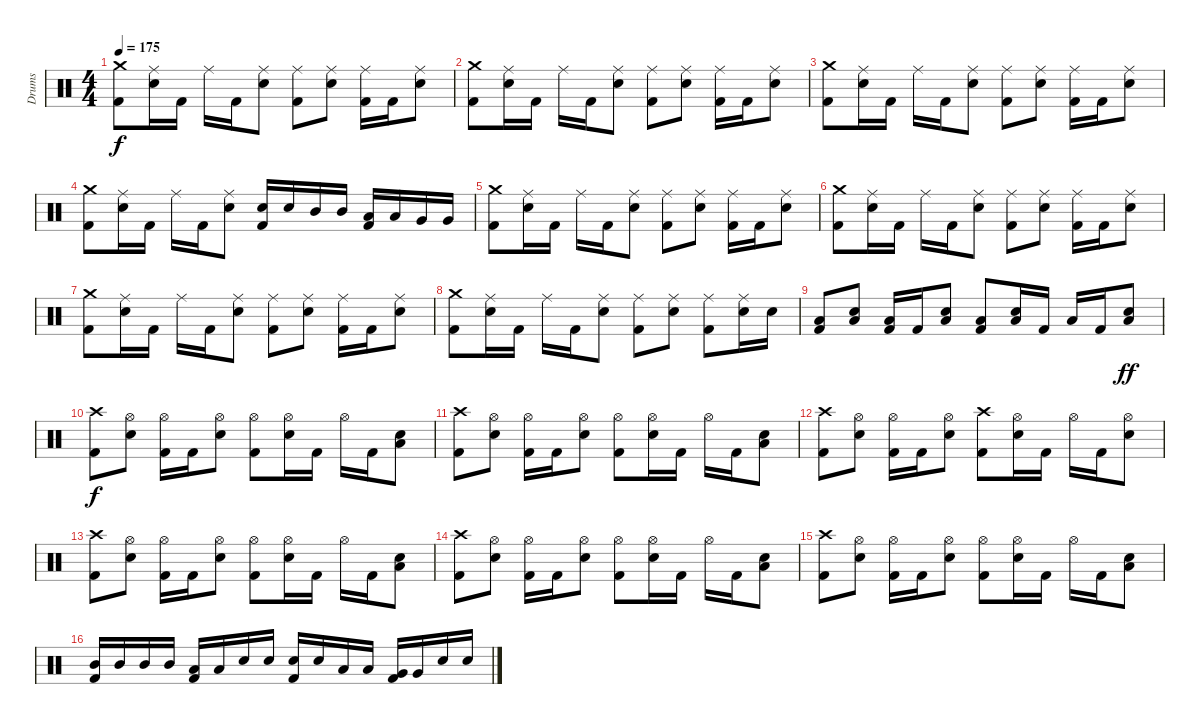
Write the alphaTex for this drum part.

\track ("Drums" "Drums") {instrument percussion}
\staff {score}
\articulation defaults
\ts (4 4)
\tempo 175
\clef neutral
\ks c
("Crash medium (hit)" "Kick (hit) 2").8{dy f} ("Ride (middle)" "Electric Snare (hit)").16 "Kick (hit) 2".16 "Ride (middle)".16 "Kick (hit) 2".16 ("Ride (middle)" "Electric Snare (hit)").8 ("Ride (middle)" "Kick (hit) 2").8 ("Ride (middle)" "Electric Snare (hit)").8 ("Ride (middle)" "Kick (hit) 2").16 "Kick (hit) 2".16 ("Ride (middle)" "Electric Snare (hit)").8 |
("Crash medium (hit)" "Kick (hit) 2").8 ("Ride (middle)" "Electric Snare (hit)").16 "Kick (hit) 2".16 "Ride (middle)".16 "Kick (hit) 2".16 ("Ride (middle)" "Electric Snare (hit)").8 ("Ride (middle)" "Kick (hit) 2").8 ("Ride (middle)" "Electric Snare (hit)").8 ("Ride (middle)" "Kick (hit) 2").16 "Kick (hit) 2".16 ("Ride (middle)" "Electric Snare (hit)").8 |
("Crash medium (hit)" "Kick (hit) 2").8 ("Ride (middle)" "Electric Snare (hit)").16 "Kick (hit) 2".16 "Ride (middle)".16 "Kick (hit) 2".16 ("Ride (middle)" "Electric Snare (hit)").8 ("Ride (middle)" "Kick (hit) 2").8 ("Ride (middle)" "Electric Snare (hit)").8 ("Ride (middle)" "Kick (hit) 2").16 "Kick (hit) 2".16 ("Ride (middle)" "Electric Snare (hit)").8 |
("Crash medium (hit)" "Kick (hit) 2").8 ("Ride (middle)" "Electric Snare (hit)").16 "Kick (hit) 2".16 "Ride (middle)".16 "Kick (hit) 2".16 ("Ride (middle)" "Electric Snare (hit)").8 ("Electric Snare (hit)" "Kick (hit) 2").16 "Electric Snare (hit)".16 "Mid Tom (hit)".16 "Mid Tom (hit)".16 ("Low Tom (hit)" "Kick (hit) 2").16 "Low Tom (hit)".16 "Very Low Tom (hit)".16 "Very Low Tom (hit)".16 |
("Crash medium (hit)" "Kick (hit) 2").8 ("Ride (middle)" "Electric Snare (hit)").16 "Kick (hit) 2".16 "Ride (middle)".16 "Kick (hit) 2".16 ("Ride (middle)" "Electric Snare (hit)").8 ("Ride (middle)" "Kick (hit) 2").8 ("Ride (middle)" "Electric Snare (hit)").8 ("Ride (middle)" "Kick (hit) 2").16 "Kick (hit) 2".16 ("Ride (middle)" "Electric Snare (hit)").8 |
("Crash medium (hit)" "Kick (hit) 2").8 ("Ride (middle)" "Electric Snare (hit)").16 "Kick (hit) 2".16 "Ride (middle)".16 "Kick (hit) 2".16 ("Ride (middle)" "Electric Snare (hit)").8 ("Ride (middle)" "Kick (hit) 2").8 ("Ride (middle)" "Electric Snare (hit)").8 ("Ride (middle)" "Kick (hit) 2").16 "Kick (hit) 2".16 ("Ride (middle)" "Electric Snare (hit)").8 |
("Crash medium (hit)" "Kick (hit) 2").8 ("Ride (middle)" "Electric Snare (hit)").16 "Kick (hit) 2".16 "Ride (middle)".16 "Kick (hit) 2".16 ("Ride (middle)" "Electric Snare (hit)").8 ("Ride (middle)" "Kick (hit) 2").8 ("Ride (middle)" "Electric Snare (hit)").8 ("Ride (middle)" "Kick (hit) 2").16 "Kick (hit) 2".16 ("Ride (middle)" "Electric Snare (hit)").8 |
("Crash medium (hit)" "Kick (hit) 2").8 ("Ride (middle)" "Electric Snare (hit)").16 "Kick (hit) 2".16 "Ride (middle)".16 "Kick (hit) 2".16 ("Ride (middle)" "Electric Snare (hit)").8 ("Ride (middle)" "Kick (hit) 2").8 ("Ride (middle)" "Electric Snare (hit)").8 ("Ride (middle)" "Kick (hit) 2").8 ("Ride (middle)" "Electric Snare (hit)").16 "Electric Snare (hit)".16 |
("Low Floor Tom (hit)" "Kick (hit) 2").8 ("Low Floor Tom (hit)" "Electric Snare (hit)").8 ("Low Floor Tom (hit)" "Kick (hit) 2").16 "Kick (hit) 2".16 ("Low Floor Tom (hit)" "Electric Snare (hit)").8 ("Low Floor Tom (hit)" "Kick (hit) 2").8 ("Low Floor Tom (hit)" "Electric Snare (hit)").16 "Kick (hit) 2".16 "Low Floor Tom (hit)".16 "Kick (hit) 2".16 ("Low Floor Tom (hit)" "Electric Snare (hit)").8{dy ff} |
("Crash high (hit)" "Kick (hit) 2").8{dy f} ("Hi-Hat (open)" "Electric Snare (hit)").8 ("Hi-Hat (open)" "Kick (hit) 2").16 "Kick (hit) 2".16 ("Hi-Hat (open)" "Electric Snare (hit)").8 ("Hi-Hat (open)" "Kick (hit) 2").8 ("Hi-Hat (open)" "Electric Snare (hit)").16 "Kick (hit) 2".16 "Hi-Hat (open)".16 "Kick (hit) 2".16 ("Low Floor Tom (hit)" "Electric Snare (hit)").8 |
("Crash high (hit)" "Kick (hit) 2").8 ("Hi-Hat (open)" "Electric Snare (hit)").8 ("Hi-Hat (open)" "Kick (hit) 2").16 "Kick (hit) 2".16 ("Hi-Hat (open)" "Electric Snare (hit)").8 ("Hi-Hat (open)" "Kick (hit) 2").8 ("Hi-Hat (open)" "Electric Snare (hit)").16 "Kick (hit) 2".16 "Hi-Hat (open)".16 "Kick (hit) 2".16 ("Low Floor Tom (hit)" "Electric Snare (hit)").8 |
("Crash high (hit)" "Kick (hit) 2").8 ("Hi-Hat (open)" "Electric Snare (hit)").8 ("Hi-Hat (open)" "Kick (hit) 2").16 "Kick (hit) 2".16 ("Hi-Hat (open)" "Electric Snare (hit)").8 ("Crash high (hit)" "Kick (hit) 2").8 ("Hi-Hat (open)" "Electric Snare (hit)").16 "Kick (hit) 2".16 "Hi-Hat (open)".16 "Kick (hit) 2".16 ("Hi-Hat (open)" "Electric Snare (hit)").8 |
("Crash high (hit)" "Kick (hit) 2").8 ("Hi-Hat (open)" "Electric Snare (hit)").8 ("Hi-Hat (open)" "Kick (hit) 2").16 "Kick (hit) 2".16 ("Hi-Hat (open)" "Electric Snare (hit)").8 ("Hi-Hat (open)" "Kick (hit) 2").8 ("Hi-Hat (open)" "Electric Snare (hit)").16 "Kick (hit) 2".16 "Hi-Hat (open)".16 "Kick (hit) 2".16 ("Low Floor Tom (hit)" "Electric Snare (hit)").8 |
("Crash high (hit)" "Kick (hit) 2").8 ("Hi-Hat (open)" "Electric Snare (hit)").8 ("Hi-Hat (open)" "Kick (hit) 2").16 "Kick (hit) 2".16 ("Hi-Hat (open)" "Electric Snare (hit)").8 ("Hi-Hat (open)" "Kick (hit) 2").8 ("Hi-Hat (open)" "Electric Snare (hit)").16 "Kick (hit) 2".16 "Hi-Hat (open)".16 "Kick (hit) 2".16 ("Low Floor Tom (hit)" "Electric Snare (hit)").8 |
("Crash high (hit)" "Kick (hit) 2").8 ("Hi-Hat (open)" "Electric Snare (hit)").8 ("Hi-Hat (open)" "Kick (hit) 2").16 "Kick (hit) 2".16 ("Hi-Hat (open)" "Electric Snare (hit)").8 ("Hi-Hat (open)" "Kick (hit) 2").8 ("Hi-Hat (open)" "Electric Snare (hit)").16 "Kick (hit) 2".16 "Hi-Hat (open)".16 "Kick (hit) 2".16 ("Low Floor Tom (hit)" "Electric Snare (hit)").8 |
("Mid Tom (hit)" "Kick (hit) 2").16 "Mid Tom (hit)".16 "Mid Tom (hit)".16 "Mid Tom (hit)".16 ("Low Tom (hit)" "Kick (hit) 2").16 "Low Tom (hit)".16 "Electric Snare (hit)".16 "Electric Snare (hit)".16 ("Electric Snare (hit)" "Kick (hit) 2").16 "Electric Snare (hit)".16 "Low Tom (hit)".16 "Low Tom (hit)".16 ("Very Low Tom (hit)" "Kick (hit) 2").16 "Very Low Tom (hit)".16 "Electric Snare (hit)".16 "Electric Snare (hit)".16
